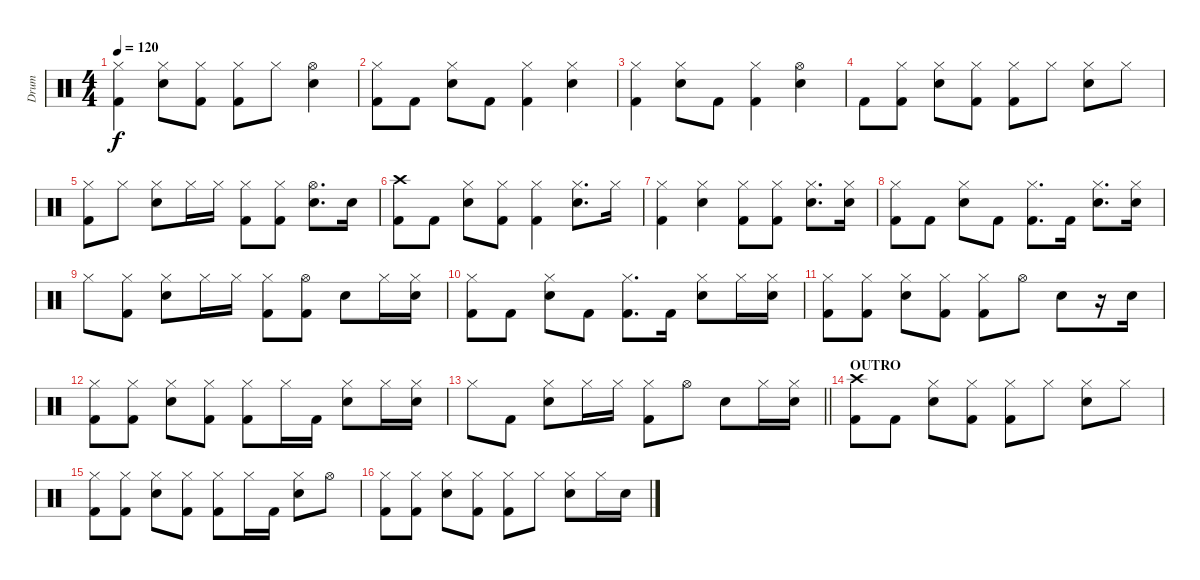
\track ("Drum" "Drum") {instrument percussion}
\staff {score}
\articulation defaults
\ts (4 4)
\tempo 120
\clef neutral
\ks c
("Kick (hit) 2" "Hi-Hat (closed)").4{dy f} ("Snare (hit) 2" "Hi-Hat (closed)").8 ("Kick (hit) 2" "Hi-Hat (closed)").8 ("Kick (hit) 2" "Hi-Hat (closed)").8 "Hi-Hat (closed)".8 ("Snare (hit) 2" "Hi-Hat (open)").4 |
("Kick (hit) 2" "Hi-Hat (closed)").8 "Kick (hit) 2".8 ("Snare (hit) 2" "Hi-Hat (closed)").8 "Kick (hit) 2".8 ("Kick (hit) 2" "Hi-Hat (closed)").4 ("Snare (hit) 2" "Hi-Hat (closed)").4 |
("Kick (hit) 2" "Hi-Hat (closed)").4 ("Snare (hit) 2" "Hi-Hat (closed)").8 "Kick (hit) 2".8 ("Kick (hit) 2" "Hi-Hat (closed)").4 ("Snare (hit) 2" "Hi-Hat (open)").4 |
"Kick (hit) 2".8 ("Kick (hit) 2" "Hi-Hat (closed)").8 ("Snare (hit) 2" "Hi-Hat (closed)").8 ("Kick (hit) 2" "Hi-Hat (closed)").8 ("Kick (hit) 2" "Hi-Hat (closed)").8 "Hi-Hat (closed)".8 ("Snare (hit) 2" "Hi-Hat (closed)").8 "Hi-Hat (closed)".8 |
("Kick (hit) 2" "Hi-Hat (closed)").8 "Hi-Hat (closed)".8 ("Snare (hit) 2" "Hi-Hat (closed)").8 "Hi-Hat (closed)".16 "Hi-Hat (closed)".16 ("Kick (hit) 2" "Hi-Hat (closed)").8 ("Kick (hit) 2" "Hi-Hat (closed)").8 ("Snare (hit) 2" "Hi-Hat (open)").8{d} "Snare (hit) 2".16 |
("Kick (hit) 2" "Crash high (hit)").8 "Kick (hit) 2".8 ("Snare (hit) 2" "Hi-Hat (closed)").8 ("Kick (hit) 2" "Hi-Hat (closed)").8 ("Kick (hit) 2" "Hi-Hat (closed)").4 ("Snare (hit) 2" "Hi-Hat (closed)").8{d} "Hi-Hat (closed)".16 |
("Kick (hit) 2" "Hi-Hat (closed)").4 ("Snare (hit) 2" "Hi-Hat (closed)").4 ("Kick (hit) 2" "Hi-Hat (closed)").8 ("Kick (hit) 2" "Hi-Hat (closed)").8 ("Snare (hit) 2" "Hi-Hat (closed)").8{d} ("Snare (hit) 2" "Hi-Hat (closed)").16 |
("Kick (hit) 2" "Hi-Hat (closed)").8 "Kick (hit) 2".8 ("Snare (hit) 2" "Hi-Hat (closed)").8 "Kick (hit) 2".8 ("Kick (hit) 2" "Hi-Hat (closed)").8{d} "Kick (hit) 2".16 ("Snare (hit) 2" "Hi-Hat (closed)").8{d} ("Snare (hit) 2" "Hi-Hat (closed)").16 |
"Hi-Hat (closed)".8 ("Kick (hit) 2" "Hi-Hat (closed)").8 ("Snare (hit) 2" "Hi-Hat (closed)").8 "Hi-Hat (closed)".16 "Hi-Hat (closed)".16 ("Kick (hit) 2" "Hi-Hat (closed)").8 ("Kick (hit) 2" "Hi-Hat (open)").8 "Snare (hit) 2".8 "Hi-Hat (closed)".16 ("Snare (hit) 2" "Hi-Hat (closed)").16 |
("Kick (hit) 2" "Hi-Hat (closed)").8 "Kick (hit) 2".8 ("Snare (hit) 2" "Hi-Hat (closed)").8 "Kick (hit) 2".8 ("Kick (hit) 2" "Hi-Hat (closed)").8{d} "Kick (hit) 2".16 ("Snare (hit) 2" "Hi-Hat (closed)").8 "Hi-Hat (closed)".16 ("Snare (hit) 2" "Hi-Hat (closed)").16 |
("Kick (hit) 2" "Hi-Hat (closed)").8 ("Kick (hit) 2" "Hi-Hat (closed)").8 ("Snare (hit) 2" "Hi-Hat (closed)").8 ("Kick (hit) 2" "Hi-Hat (closed)").8 ("Kick (hit) 2" "Hi-Hat (closed)").8 "Hi-Hat (open)".8 "Snare (hit) 2".8 r.16 "Snare (hit) 2".16 |
("Kick (hit) 2" "Hi-Hat (closed)").8 ("Kick (hit) 2" "Hi-Hat (closed)").8 ("Snare (hit) 2" "Hi-Hat (closed)").8 ("Kick (hit) 2" "Hi-Hat (closed)").8 ("Kick (hit) 2" "Hi-Hat (closed)").8 "Hi-Hat (closed)".16 "Kick (hit) 2".16 ("Snare (hit) 2" "Hi-Hat (closed)").8 "Hi-Hat (closed)".16 ("Snare (hit) 2" "Hi-Hat (closed)").16 |
\barLineRight lightlight "Hi-Hat (closed)".8 "Kick (hit) 2".8
("Snare (hit) 2" "Hi-Hat (closed)").8 "Hi-Hat (closed)".16 "Hi-Hat (closed)".16 ("Kick (hit) 2" "Hi-Hat (closed)").8 "Hi-Hat (open)".8 "Snare (hit) 2".8 "Hi-Hat (closed)".16 ("Snare (hit) 2" "Hi-Hat (closed)").16 |
\section ("" "OUTRO")
("Kick (hit) 2" "Crash high (hit)").8 "Kick (hit) 2".8 ("Snare (hit) 2" "Hi-Hat (closed)").8 ("Kick (hit) 2" "Hi-Hat (closed)").8 ("Kick (hit) 2" "Hi-Hat (closed)").8 "Hi-Hat (closed)".8 ("Snare (hit) 2" "Hi-Hat (closed)").8 "Hi-Hat (closed)".8 |
("Kick (hit) 2" "Hi-Hat (closed)").8 ("Kick (hit) 2" "Hi-Hat (closed)").8 ("Snare (hit) 2" "Hi-Hat (closed)").8 ("Kick (hit) 2" "Hi-Hat (closed)").8 ("Kick (hit) 2" "Hi-Hat (closed)").8 "Hi-Hat (closed)".16 "Kick (hit) 2".16 ("Snare (hit) 2" "Hi-Hat (closed)").8 "Hi-Hat (open)".8 |
("Kick (hit) 2" "Hi-Hat (closed)").8 ("Kick (hit) 2" "Hi-Hat (closed)").8 ("Snare (hit) 2" "Hi-Hat (closed)").8 ("Kick (hit) 2" "Hi-Hat (closed)").8 ("Kick (hit) 2" "Hi-Hat (closed)").8 "Hi-Hat (closed)".8 ("Snare (hit) 2" "Hi-Hat (closed)").8 "Hi-Hat (closed)".16 "Snare (hit) 2".16
